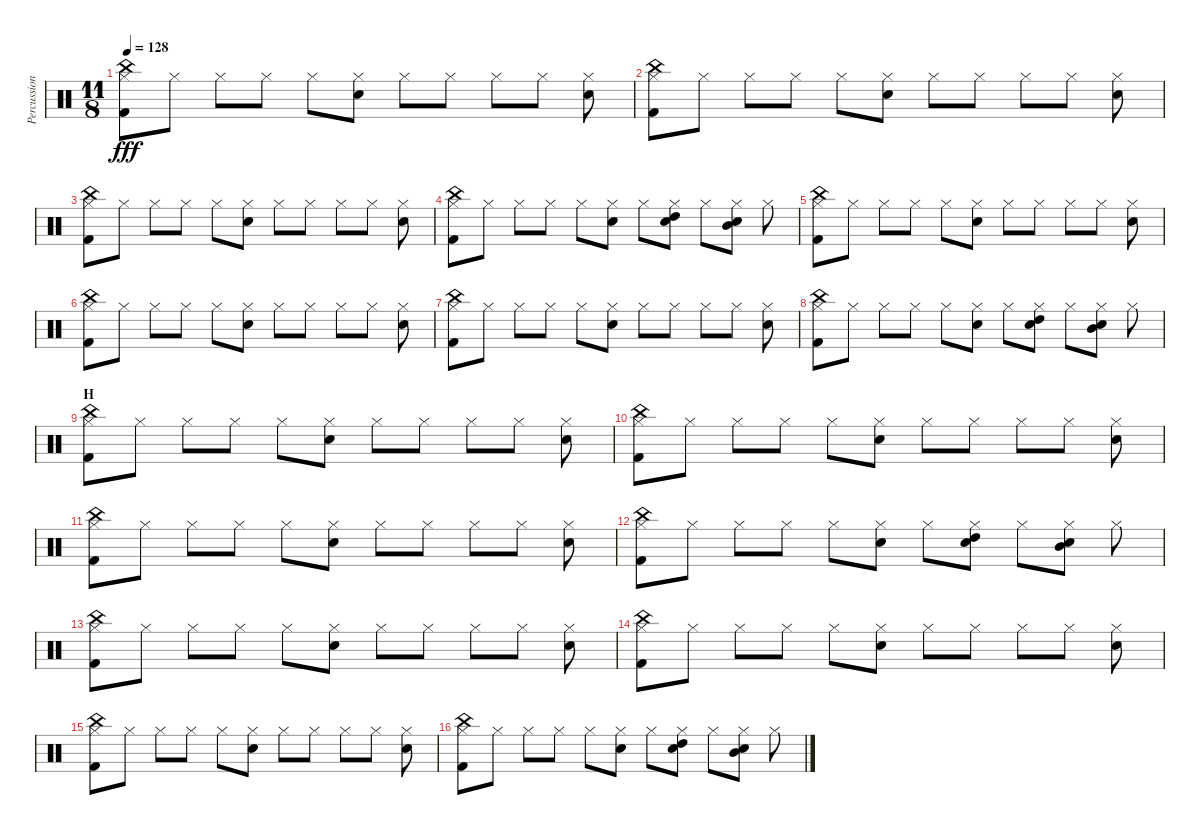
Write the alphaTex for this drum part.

\track ("Percussions" "Percussion") {instrument percussion}
\staff {score}
\articulation defaults
\ts (11 8)
\tempo 128
\clef neutral
\ks c
("Hi-Hat (closed)" "China (hit)" "Kick (hit) 2").8{dy fff} "Hi-Hat (closed)".8 "Hi-Hat (closed)".8 "Hi-Hat (closed)".8 "Hi-Hat (closed)".8 ("Hi-Hat (closed)" "Electric Snare (hit)").8 "Hi-Hat (closed)".8 "Hi-Hat (closed)".8 "Hi-Hat (closed)".8 "Hi-Hat (closed)".8 ("Hi-Hat (closed)" "Electric Snare (hit)").8 |
("Hi-Hat (closed)" "China (hit)" "Kick (hit) 2").8 "Hi-Hat (closed)".8 "Hi-Hat (closed)".8 "Hi-Hat (closed)".8 "Hi-Hat (closed)".8 ("Hi-Hat (closed)" "Electric Snare (hit)").8 "Hi-Hat (closed)".8 "Hi-Hat (closed)".8 "Hi-Hat (closed)".8 "Hi-Hat (closed)".8 ("Hi-Hat (closed)" "Electric Snare (hit)").8 |
("Hi-Hat (closed)" "China (hit)" "Kick (hit) 2").8 "Hi-Hat (closed)".8 "Hi-Hat (closed)".8 "Hi-Hat (closed)".8 "Hi-Hat (closed)".8 ("Hi-Hat (closed)" "Electric Snare (hit)").8 "Hi-Hat (closed)".8 "Hi-Hat (closed)".8 "Hi-Hat (closed)".8 "Hi-Hat (closed)".8 ("Hi-Hat (closed)" "Electric Snare (hit)").8 |
("Hi-Hat (closed)" "China (hit)" "Kick (hit) 2").8 "Hi-Hat (closed)".8 "Hi-Hat (closed)".8 "Hi-Hat (closed)".8 "Hi-Hat (closed)".8 ("Hi-Hat (closed)" "Electric Snare (hit)").8 "Hi-Hat (closed)".8 ("Hi-Hat (closed)" "High Tom (hit)" "Electric Snare (hit)").8 "Hi-Hat (closed)".8 ("Hi-Hat (closed)" "Mid Tom (hit)" "Electric Snare (hit)").8 "Hi-Hat (closed)".8 |
("Hi-Hat (closed)" "China (hit)" "Kick (hit) 2").8 "Hi-Hat (closed)".8 "Hi-Hat (closed)".8 "Hi-Hat (closed)".8 "Hi-Hat (closed)".8 ("Hi-Hat (closed)" "Electric Snare (hit)").8 "Hi-Hat (closed)".8 "Hi-Hat (closed)".8 "Hi-Hat (closed)".8 "Hi-Hat (closed)".8 ("Hi-Hat (closed)" "Electric Snare (hit)").8 |
("Hi-Hat (closed)" "China (hit)" "Kick (hit) 2").8 "Hi-Hat (closed)".8 "Hi-Hat (closed)".8 "Hi-Hat (closed)".8 "Hi-Hat (closed)".8 ("Hi-Hat (closed)" "Electric Snare (hit)").8 "Hi-Hat (closed)".8 "Hi-Hat (closed)".8 "Hi-Hat (closed)".8 "Hi-Hat (closed)".8 ("Hi-Hat (closed)" "Electric Snare (hit)").8 |
("Hi-Hat (closed)" "China (hit)" "Kick (hit) 2").8 "Hi-Hat (closed)".8 "Hi-Hat (closed)".8 "Hi-Hat (closed)".8 "Hi-Hat (closed)".8 ("Hi-Hat (closed)" "Electric Snare (hit)").8 "Hi-Hat (closed)".8 "Hi-Hat (closed)".8 "Hi-Hat (closed)".8 "Hi-Hat (closed)".8 ("Hi-Hat (closed)" "Electric Snare (hit)").8 |
("Hi-Hat (closed)" "China (hit)" "Kick (hit) 2").8 "Hi-Hat (closed)".8 "Hi-Hat (closed)".8 "Hi-Hat (closed)".8 "Hi-Hat (closed)".8 ("Hi-Hat (closed)" "Electric Snare (hit)").8 "Hi-Hat (closed)".8 ("Hi-Hat (closed)" "High Tom (hit)" "Electric Snare (hit)").8 "Hi-Hat (closed)".8 ("Hi-Hat (closed)" "Mid Tom (hit)" "Electric Snare (hit)").8 "Hi-Hat (closed)".8 |
\section ("" "H")
("Hi-Hat (closed)" "China (hit)" "Kick (hit) 2").8 "Hi-Hat (closed)".8 "Hi-Hat (closed)".8 "Hi-Hat (closed)".8 "Hi-Hat (closed)".8 ("Hi-Hat (closed)" "Electric Snare (hit)").8 "Hi-Hat (closed)".8 "Hi-Hat (closed)".8 "Hi-Hat (closed)".8 "Hi-Hat (closed)".8 ("Hi-Hat (closed)" "Electric Snare (hit)").8 |
("Hi-Hat (closed)" "China (hit)" "Kick (hit) 2").8 "Hi-Hat (closed)".8 "Hi-Hat (closed)".8 "Hi-Hat (closed)".8 "Hi-Hat (closed)".8 ("Hi-Hat (closed)" "Electric Snare (hit)").8 "Hi-Hat (closed)".8 "Hi-Hat (closed)".8 "Hi-Hat (closed)".8 "Hi-Hat (closed)".8 ("Hi-Hat (closed)" "Electric Snare (hit)").8 |
("Hi-Hat (closed)" "China (hit)" "Kick (hit) 2").8 "Hi-Hat (closed)".8 "Hi-Hat (closed)".8 "Hi-Hat (closed)".8 "Hi-Hat (closed)".8 ("Hi-Hat (closed)" "Electric Snare (hit)").8 "Hi-Hat (closed)".8 "Hi-Hat (closed)".8 "Hi-Hat (closed)".8 "Hi-Hat (closed)".8 ("Hi-Hat (closed)" "Electric Snare (hit)").8 |
("Hi-Hat (closed)" "China (hit)" "Kick (hit) 2").8 "Hi-Hat (closed)".8 "Hi-Hat (closed)".8 "Hi-Hat (closed)".8 "Hi-Hat (closed)".8 ("Hi-Hat (closed)" "Electric Snare (hit)").8 "Hi-Hat (closed)".8 ("Hi-Hat (closed)" "High Tom (hit)" "Electric Snare (hit)").8 "Hi-Hat (closed)".8 ("Hi-Hat (closed)" "Mid Tom (hit)" "Electric Snare (hit)").8 "Hi-Hat (closed)".8 |
("Hi-Hat (closed)" "China (hit)" "Kick (hit) 2").8 "Hi-Hat (closed)".8 "Hi-Hat (closed)".8 "Hi-Hat (closed)".8 "Hi-Hat (closed)".8 ("Hi-Hat (closed)" "Electric Snare (hit)").8 "Hi-Hat (closed)".8 "Hi-Hat (closed)".8 "Hi-Hat (closed)".8 "Hi-Hat (closed)".8 ("Hi-Hat (closed)" "Electric Snare (hit)").8 |
("Hi-Hat (closed)" "China (hit)" "Kick (hit) 2").8 "Hi-Hat (closed)".8 "Hi-Hat (closed)".8 "Hi-Hat (closed)".8 "Hi-Hat (closed)".8 ("Hi-Hat (closed)" "Electric Snare (hit)").8 "Hi-Hat (closed)".8 "Hi-Hat (closed)".8 "Hi-Hat (closed)".8 "Hi-Hat (closed)".8 ("Hi-Hat (closed)" "Electric Snare (hit)").8 |
("Hi-Hat (closed)" "China (hit)" "Kick (hit) 2").8 "Hi-Hat (closed)".8 "Hi-Hat (closed)".8 "Hi-Hat (closed)".8 "Hi-Hat (closed)".8 ("Hi-Hat (closed)" "Electric Snare (hit)").8 "Hi-Hat (closed)".8 "Hi-Hat (closed)".8 "Hi-Hat (closed)".8 "Hi-Hat (closed)".8 ("Hi-Hat (closed)" "Electric Snare (hit)").8 |
("Hi-Hat (closed)" "China (hit)" "Kick (hit) 2").8 "Hi-Hat (closed)".8 "Hi-Hat (closed)".8 "Hi-Hat (closed)".8 "Hi-Hat (closed)".8 ("Hi-Hat (closed)" "Electric Snare (hit)").8 "Hi-Hat (closed)".8 ("Hi-Hat (closed)" "High Tom (hit)" "Electric Snare (hit)").8 "Hi-Hat (closed)".8 ("Hi-Hat (closed)" "Mid Tom (hit)" "Electric Snare (hit)").8 "Hi-Hat (closed)".8
